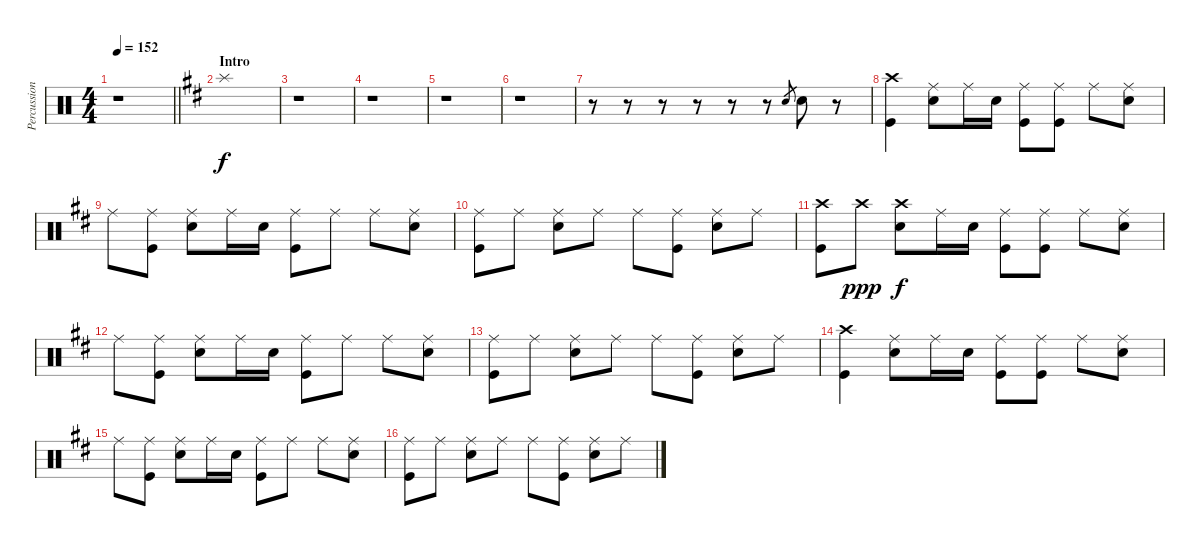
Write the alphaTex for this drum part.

\track ("Percussion" "Percussion") {instrument percussion}
\staff {score}
\articulation defaults
\ts (4 4)
\tempo 152
\clef neutral
\barLineRight lightlight
\ks c
r.1{dy f} |
\section ("" "Intro")
\ks d "Splash (hit)".1{volume 8}
|
r.1 |
r.1 |
r.1 |
r.1 |
r.8 r.8 r.8 r.8 r.8 r.8 "Snare (hit) 2".8{gr} "Snare (hit) 2".8 r.8 |
("Crash high (hit)" "Kick (hit)").4 ("Ride (middle)" "Snare (hit) 2").8 "Ride (middle)".16 "Snare (hit) 2".16 ("Ride (middle)" "Kick (hit)").8 ("Ride (middle)" "Kick (hit)").8 "Ride (middle)".8 ("Ride (middle)" "Snare (hit) 2").8 |
"Ride (middle)".8 ("Ride (middle)" "Kick (hit)").8 ("Ride (middle)" "Snare (hit) 2").8 "Ride (middle)".16 "Snare (hit) 2".16 ("Ride (middle)" "Kick (hit)").8 "Ride (middle)".8 "Ride (middle)".8 ("Ride (middle)" "Snare (hit) 2").8 |
("Ride (middle)" "Kick (hit)").8 "Ride (middle)".8 ("Ride (middle)" "Snare (hit) 2").8 "Ride (middle)".8 "Ride (middle)".8 ("Ride (middle)" "Kick (hit)").8 ("Ride (middle)" "Snare (hit) 2").8 "Ride (middle)".8 |
("Crash high (hit)" "Kick (hit)").8 "Crash high (hit)".8{dy ppp} ("Crash high (hit)" "Snare (hit) 2").8{dy f} "Ride (middle)".16 "Snare (hit) 2".16 ("Ride (middle)" "Kick (hit)").8 ("Ride (middle)" "Kick (hit)").8 "Ride (middle)".8 ("Ride (middle)" "Snare (hit) 2").8 |
"Ride (middle)".8 ("Ride (middle)" "Kick (hit)").8 ("Ride (middle)" "Snare (hit) 2").8 "Ride (middle)".16 "Snare (hit) 2".16 ("Ride (middle)" "Kick (hit)").8 "Ride (middle)".8 "Ride (middle)".8 ("Ride (middle)" "Snare (hit) 2").8 |
("Ride (middle)" "Kick (hit)").8 "Ride (middle)".8 ("Ride (middle)" "Snare (hit) 2").8 "Ride (middle)".8 "Ride (middle)".8 ("Ride (middle)" "Kick (hit)").8 ("Ride (middle)" "Snare (hit) 2").8 "Ride (middle)".8 |
("Crash high (hit)" "Kick (hit)").4 ("Ride (middle)" "Snare (hit) 2").8 "Ride (middle)".16 "Snare (hit) 2".16 ("Ride (middle)" "Kick (hit)").8 ("Ride (middle)" "Kick (hit)").8 "Ride (middle)".8 ("Ride (middle)" "Snare (hit) 2").8 |
"Ride (middle)".8 ("Ride (middle)" "Kick (hit)").8 ("Ride (middle)" "Snare (hit) 2").8 "Ride (middle)".16 "Snare (hit) 2".16 ("Ride (middle)" "Kick (hit)").8 "Ride (middle)".8 "Ride (middle)".8 ("Ride (middle)" "Snare (hit) 2").8 |
("Ride (middle)" "Kick (hit)").8 "Ride (middle)".8 ("Ride (middle)" "Snare (hit) 2").8 "Ride (middle)".8 "Ride (middle)".8 ("Ride (middle)" "Kick (hit)").8 ("Ride (middle)" "Snare (hit) 2").8 "Ride (middle)".8
